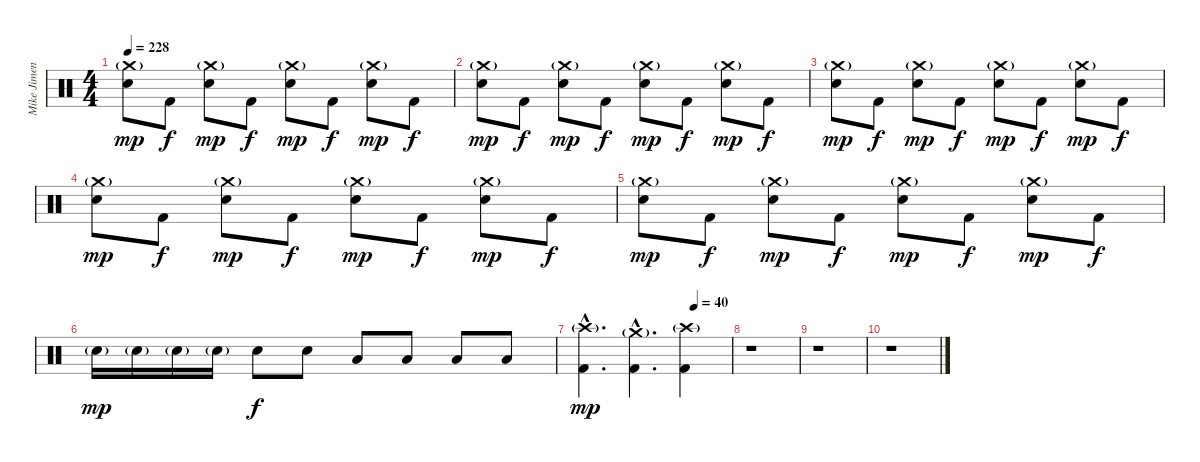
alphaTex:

\track ("Mike Jimenez" "Mike Jimen") {instrument percussion}
\staff {score}
\articulation defaults
\ts (4 4)
\tempo 228
\clef neutral
\ks c
("Crash medium (hit)"{g} "Electric Snare (hit)").8{dy mp} "Kick (hit) 2".8{dy f} ("Crash medium (hit)"{g} "Electric Snare (hit)").8{dy mp} "Kick (hit) 2".8{dy f} ("Crash medium (hit)"{g} "Electric Snare (hit)").8{dy mp} "Kick (hit) 2".8{dy f} ("Crash medium (hit)"{g} "Electric Snare (hit)").8{dy mp} "Kick (hit) 2".8{dy f} |
("Crash medium (hit)"{g} "Electric Snare (hit)").8{dy mp} "Kick (hit) 2".8{dy f} ("Crash medium (hit)"{g} "Electric Snare (hit)").8{dy mp} "Kick (hit) 2".8{dy f} ("Crash medium (hit)"{g} "Electric Snare (hit)").8{dy mp} "Kick (hit) 2".8{dy f} ("Crash medium (hit)"{g} "Electric Snare (hit)").8{dy mp} "Kick (hit) 2".8{dy f} |
("Crash medium (hit)"{g} "Electric Snare (hit)").8{dy mp} "Kick (hit) 2".8{dy f} ("Crash medium (hit)"{g} "Electric Snare (hit)").8{dy mp} "Kick (hit) 2".8{dy f} ("Crash medium (hit)"{g} "Electric Snare (hit)").8{dy mp} "Kick (hit) 2".8{dy f} ("Crash medium (hit)"{g} "Electric Snare (hit)").8{dy mp} "Kick (hit) 2".8{dy f} |
("Crash medium (hit)"{g} "Electric Snare (hit)").8{dy mp} "Kick (hit) 2".8{dy f} ("Crash medium (hit)"{g} "Electric Snare (hit)").8{dy mp} "Kick (hit) 2".8{dy f} ("Crash medium (hit)"{g} "Electric Snare (hit)").8{dy mp} "Kick (hit) 2".8{dy f} ("Crash medium (hit)"{g} "Electric Snare (hit)").8{dy mp} "Kick (hit) 2".8{dy f} |
("Crash medium (hit)"{g} "Electric Snare (hit)").8{dy mp} "Kick (hit) 2".8{dy f} ("Crash medium (hit)"{g} "Electric Snare (hit)").8{dy mp} "Kick (hit) 2".8{dy f} ("Crash medium (hit)"{g} "Electric Snare (hit)").8{dy mp} "Kick (hit) 2".8{dy f} ("Crash medium (hit)"{g} "Electric Snare (hit)").8{dy mp} "Kick (hit) 2".8{dy f} |
"Electric Snare (hit)"{g}.16{dy mp} "Electric Snare (hit)"{g}.16 "Electric Snare (hit)"{g}.16 "Electric Snare (hit)"{g}.16 "Electric Snare (hit)".8{dy f} "Electric Snare (hit)".8 "Low Tom (hit)".8 "Low Tom (hit)".8 "Low Floor Tom (hit)".8 "Low Floor Tom (hit)".8 |
\tempo (40 0.75)
("Crash high (hit)"{g hac} "Kick (hit) 2"{hac}).4{d dy mp} ("Crash medium (hit)"{g hac} "Kick (hit) 2"{hac}).4{d} ("Crash high (hit)"{g} "Kick (hit) 2").4 |
r.1 |
r.1 |
r.1
